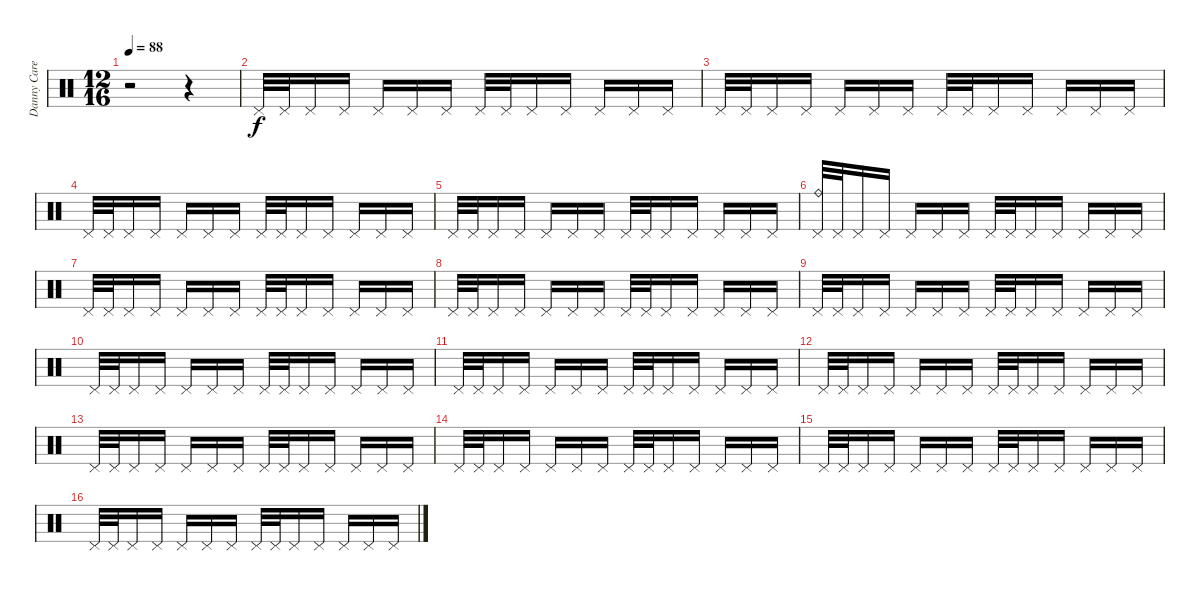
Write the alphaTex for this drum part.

\track ("Danny Carey" "Danny Care") {instrument percussion}
\staff {score}
\articulation defaults
\ts (12 16)
\tempo 88
\clef neutral
\ks c
r.2{dy f} r.4 |
"Pedal Hi-Hat (hit)".32 "Pedal Hi-Hat (hit)".32 "Pedal Hi-Hat (hit)".16 "Pedal Hi-Hat (hit)".16 "Pedal Hi-Hat (hit)".16 "Pedal Hi-Hat (hit)".16 "Pedal Hi-Hat (hit)".16 "Pedal Hi-Hat (hit)".32 "Pedal Hi-Hat (hit)".32 "Pedal Hi-Hat (hit)".16 "Pedal Hi-Hat (hit)".16 "Pedal Hi-Hat (hit)".16 "Pedal Hi-Hat (hit)".16 "Pedal Hi-Hat (hit)".16 |
"Pedal Hi-Hat (hit)".32 "Pedal Hi-Hat (hit)".32 "Pedal Hi-Hat (hit)".16 "Pedal Hi-Hat (hit)".16 "Pedal Hi-Hat (hit)".16 "Pedal Hi-Hat (hit)".16 "Pedal Hi-Hat (hit)".16 "Pedal Hi-Hat (hit)".32 "Pedal Hi-Hat (hit)".32 "Pedal Hi-Hat (hit)".16 "Pedal Hi-Hat (hit)".16 "Pedal Hi-Hat (hit)".16 "Pedal Hi-Hat (hit)".16 "Pedal Hi-Hat (hit)".16 |
"Pedal Hi-Hat (hit)".32 "Pedal Hi-Hat (hit)".32 "Pedal Hi-Hat (hit)".16 "Pedal Hi-Hat (hit)".16 "Pedal Hi-Hat (hit)".16 "Pedal Hi-Hat (hit)".16 "Pedal Hi-Hat (hit)".16 "Pedal Hi-Hat (hit)".32 "Pedal Hi-Hat (hit)".32 "Pedal Hi-Hat (hit)".16 "Pedal Hi-Hat (hit)".16 "Pedal Hi-Hat (hit)".16 "Pedal Hi-Hat (hit)".16 "Pedal Hi-Hat (hit)".16 |
"Pedal Hi-Hat (hit)".32 "Pedal Hi-Hat (hit)".32 "Pedal Hi-Hat (hit)".16 "Pedal Hi-Hat (hit)".16 "Pedal Hi-Hat (hit)".16 "Pedal Hi-Hat (hit)".16 "Pedal Hi-Hat (hit)".16 "Pedal Hi-Hat (hit)".32 "Pedal Hi-Hat (hit)".32 "Pedal Hi-Hat (hit)".16 "Pedal Hi-Hat (hit)".16 "Pedal Hi-Hat (hit)".16 "Pedal Hi-Hat (hit)".16 "Pedal Hi-Hat (hit)".16 |
("Ride (bell)" "Pedal Hi-Hat (hit)").32 "Pedal Hi-Hat (hit)".32 "Pedal Hi-Hat (hit)".16 "Pedal Hi-Hat (hit)".16 "Pedal Hi-Hat (hit)".16 "Pedal Hi-Hat (hit)".16 "Pedal Hi-Hat (hit)".16 "Pedal Hi-Hat (hit)".32 "Pedal Hi-Hat (hit)".32 "Pedal Hi-Hat (hit)".16 "Pedal Hi-Hat (hit)".16 "Pedal Hi-Hat (hit)".16 "Pedal Hi-Hat (hit)".16 "Pedal Hi-Hat (hit)".16 |
"Pedal Hi-Hat (hit)".32 "Pedal Hi-Hat (hit)".32 "Pedal Hi-Hat (hit)".16 "Pedal Hi-Hat (hit)".16 "Pedal Hi-Hat (hit)".16 "Pedal Hi-Hat (hit)".16 "Pedal Hi-Hat (hit)".16 "Pedal Hi-Hat (hit)".32 "Pedal Hi-Hat (hit)".32 "Pedal Hi-Hat (hit)".16 "Pedal Hi-Hat (hit)".16 "Pedal Hi-Hat (hit)".16 "Pedal Hi-Hat (hit)".16 "Pedal Hi-Hat (hit)".16 |
"Pedal Hi-Hat (hit)".32 "Pedal Hi-Hat (hit)".32 "Pedal Hi-Hat (hit)".16 "Pedal Hi-Hat (hit)".16 "Pedal Hi-Hat (hit)".16 "Pedal Hi-Hat (hit)".16 "Pedal Hi-Hat (hit)".16 "Pedal Hi-Hat (hit)".32 "Pedal Hi-Hat (hit)".32 "Pedal Hi-Hat (hit)".16 "Pedal Hi-Hat (hit)".16 "Pedal Hi-Hat (hit)".16 "Pedal Hi-Hat (hit)".16 "Pedal Hi-Hat (hit)".16 |
"Pedal Hi-Hat (hit)".32 "Pedal Hi-Hat (hit)".32 "Pedal Hi-Hat (hit)".16 "Pedal Hi-Hat (hit)".16 "Pedal Hi-Hat (hit)".16 "Pedal Hi-Hat (hit)".16 "Pedal Hi-Hat (hit)".16 "Pedal Hi-Hat (hit)".32 "Pedal Hi-Hat (hit)".32 "Pedal Hi-Hat (hit)".16 "Pedal Hi-Hat (hit)".16 "Pedal Hi-Hat (hit)".16 "Pedal Hi-Hat (hit)".16 "Pedal Hi-Hat (hit)".16 |
"Pedal Hi-Hat (hit)".32 "Pedal Hi-Hat (hit)".32 "Pedal Hi-Hat (hit)".16 "Pedal Hi-Hat (hit)".16 "Pedal Hi-Hat (hit)".16 "Pedal Hi-Hat (hit)".16 "Pedal Hi-Hat (hit)".16 "Pedal Hi-Hat (hit)".32 "Pedal Hi-Hat (hit)".32 "Pedal Hi-Hat (hit)".16 "Pedal Hi-Hat (hit)".16 "Pedal Hi-Hat (hit)".16 "Pedal Hi-Hat (hit)".16 "Pedal Hi-Hat (hit)".16 |
"Pedal Hi-Hat (hit)".32 "Pedal Hi-Hat (hit)".32 "Pedal Hi-Hat (hit)".16 "Pedal Hi-Hat (hit)".16 "Pedal Hi-Hat (hit)".16 "Pedal Hi-Hat (hit)".16 "Pedal Hi-Hat (hit)".16 "Pedal Hi-Hat (hit)".32 "Pedal Hi-Hat (hit)".32 "Pedal Hi-Hat (hit)".16 "Pedal Hi-Hat (hit)".16 "Pedal Hi-Hat (hit)".16 "Pedal Hi-Hat (hit)".16 "Pedal Hi-Hat (hit)".16 |
"Pedal Hi-Hat (hit)".32 "Pedal Hi-Hat (hit)".32 "Pedal Hi-Hat (hit)".16 "Pedal Hi-Hat (hit)".16 "Pedal Hi-Hat (hit)".16 "Pedal Hi-Hat (hit)".16 "Pedal Hi-Hat (hit)".16 "Pedal Hi-Hat (hit)".32 "Pedal Hi-Hat (hit)".32 "Pedal Hi-Hat (hit)".16 "Pedal Hi-Hat (hit)".16 "Pedal Hi-Hat (hit)".16 "Pedal Hi-Hat (hit)".16 "Pedal Hi-Hat (hit)".16 |
"Pedal Hi-Hat (hit)".32 "Pedal Hi-Hat (hit)".32 "Pedal Hi-Hat (hit)".16 "Pedal Hi-Hat (hit)".16 "Pedal Hi-Hat (hit)".16 "Pedal Hi-Hat (hit)".16 "Pedal Hi-Hat (hit)".16 "Pedal Hi-Hat (hit)".32 "Pedal Hi-Hat (hit)".32 "Pedal Hi-Hat (hit)".16 "Pedal Hi-Hat (hit)".16 "Pedal Hi-Hat (hit)".16 "Pedal Hi-Hat (hit)".16 "Pedal Hi-Hat (hit)".16 |
"Pedal Hi-Hat (hit)".32 "Pedal Hi-Hat (hit)".32 "Pedal Hi-Hat (hit)".16 "Pedal Hi-Hat (hit)".16 "Pedal Hi-Hat (hit)".16 "Pedal Hi-Hat (hit)".16 "Pedal Hi-Hat (hit)".16 "Pedal Hi-Hat (hit)".32 "Pedal Hi-Hat (hit)".32 "Pedal Hi-Hat (hit)".16 "Pedal Hi-Hat (hit)".16 "Pedal Hi-Hat (hit)".16 "Pedal Hi-Hat (hit)".16 "Pedal Hi-Hat (hit)".16 |
"Pedal Hi-Hat (hit)".32 "Pedal Hi-Hat (hit)".32 "Pedal Hi-Hat (hit)".16 "Pedal Hi-Hat (hit)".16 "Pedal Hi-Hat (hit)".16 "Pedal Hi-Hat (hit)".16 "Pedal Hi-Hat (hit)".16 "Pedal Hi-Hat (hit)".32 "Pedal Hi-Hat (hit)".32 "Pedal Hi-Hat (hit)".16 "Pedal Hi-Hat (hit)".16 "Pedal Hi-Hat (hit)".16 "Pedal Hi-Hat (hit)".16 "Pedal Hi-Hat (hit)".16 |
"Pedal Hi-Hat (hit)".32 "Pedal Hi-Hat (hit)".32 "Pedal Hi-Hat (hit)".16 "Pedal Hi-Hat (hit)".16 "Pedal Hi-Hat (hit)".16 "Pedal Hi-Hat (hit)".16 "Pedal Hi-Hat (hit)".16 "Pedal Hi-Hat (hit)".32 "Pedal Hi-Hat (hit)".32 "Pedal Hi-Hat (hit)".16 "Pedal Hi-Hat (hit)".16 "Pedal Hi-Hat (hit)".16 "Pedal Hi-Hat (hit)".16 "Pedal Hi-Hat (hit)".16
